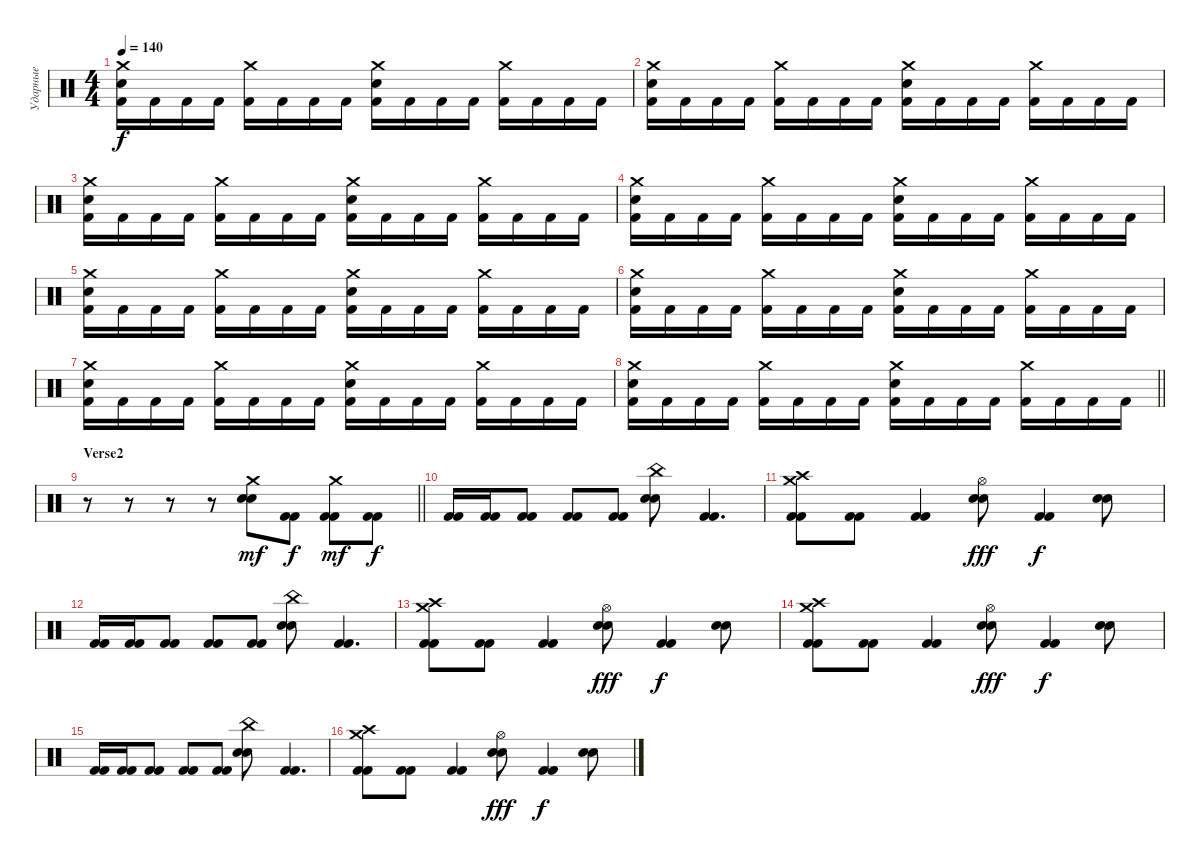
\track ("Ударные" "Ударные") {instrument percussion}
\staff {score}
\articulation defaults
\ts (4 4)
\tempo 140
\clef neutral
\ks c
("Crash medium (hit)" "Electric Snare (hit)" "Kick (hit) 2").16{dy f} "Kick (hit) 2".16 "Kick (hit) 2".16 "Kick (hit) 2".16 ("Crash medium (hit)" "Kick (hit) 2").16 "Kick (hit) 2".16 "Kick (hit) 2".16 "Kick (hit) 2".16 ("Crash medium (hit)" "Electric Snare (hit)" "Kick (hit) 2").16 "Kick (hit) 2".16 "Kick (hit) 2".16 "Kick (hit) 2".16 ("Crash medium (hit)" "Kick (hit) 2").16 "Kick (hit) 2".16 "Kick (hit) 2".16 "Kick (hit) 2".16 |
("Crash medium (hit)" "Electric Snare (hit)" "Kick (hit) 2").16 "Kick (hit) 2".16 "Kick (hit) 2".16 "Kick (hit) 2".16 ("Crash medium (hit)" "Kick (hit) 2").16 "Kick (hit) 2".16 "Kick (hit) 2".16 "Kick (hit) 2".16 ("Crash medium (hit)" "Electric Snare (hit)" "Kick (hit) 2").16 "Kick (hit) 2".16 "Kick (hit) 2".16 "Kick (hit) 2".16 ("Crash medium (hit)" "Kick (hit) 2").16 "Kick (hit) 2".16 "Kick (hit) 2".16 "Kick (hit) 2".16 |
("Crash medium (hit)" "Electric Snare (hit)" "Kick (hit) 2").16 "Kick (hit) 2".16 "Kick (hit) 2".16 "Kick (hit) 2".16 ("Crash medium (hit)" "Kick (hit) 2").16 "Kick (hit) 2".16 "Kick (hit) 2".16 "Kick (hit) 2".16 ("Crash medium (hit)" "Electric Snare (hit)" "Kick (hit) 2").16 "Kick (hit) 2".16 "Kick (hit) 2".16 "Kick (hit) 2".16 ("Crash medium (hit)" "Kick (hit) 2").16 "Kick (hit) 2".16 "Kick (hit) 2".16 "Kick (hit) 2".16 |
("Crash medium (hit)" "Electric Snare (hit)" "Kick (hit) 2").16 "Kick (hit) 2".16 "Kick (hit) 2".16 "Kick (hit) 2".16 ("Crash medium (hit)" "Kick (hit) 2").16 "Kick (hit) 2".16 "Kick (hit) 2".16 "Kick (hit) 2".16 ("Crash medium (hit)" "Electric Snare (hit)" "Kick (hit) 2").16 "Kick (hit) 2".16 "Kick (hit) 2".16 "Kick (hit) 2".16 ("Crash medium (hit)" "Kick (hit) 2").16 "Kick (hit) 2".16 "Kick (hit) 2".16 "Kick (hit) 2".16 |
("Crash medium (hit)" "Electric Snare (hit)" "Kick (hit) 2").16 "Kick (hit) 2".16 "Kick (hit) 2".16 "Kick (hit) 2".16 ("Crash medium (hit)" "Kick (hit) 2").16 "Kick (hit) 2".16 "Kick (hit) 2".16 "Kick (hit) 2".16 ("Crash medium (hit)" "Electric Snare (hit)" "Kick (hit) 2").16 "Kick (hit) 2".16 "Kick (hit) 2".16 "Kick (hit) 2".16 ("Crash medium (hit)" "Kick (hit) 2").16 "Kick (hit) 2".16 "Kick (hit) 2".16 "Kick (hit) 2".16 |
("Crash medium (hit)" "Electric Snare (hit)" "Kick (hit) 2").16 "Kick (hit) 2".16 "Kick (hit) 2".16 "Kick (hit) 2".16 ("Crash medium (hit)" "Kick (hit) 2").16 "Kick (hit) 2".16 "Kick (hit) 2".16 "Kick (hit) 2".16 ("Crash medium (hit)" "Electric Snare (hit)" "Kick (hit) 2").16 "Kick (hit) 2".16 "Kick (hit) 2".16 "Kick (hit) 2".16 ("Crash medium (hit)" "Kick (hit) 2").16 "Kick (hit) 2".16 "Kick (hit) 2".16 "Kick (hit) 2".16 |
("Crash medium (hit)" "Electric Snare (hit)" "Kick (hit) 2").16 "Kick (hit) 2".16 "Kick (hit) 2".16 "Kick (hit) 2".16 ("Crash medium (hit)" "Kick (hit) 2").16 "Kick (hit) 2".16 "Kick (hit) 2".16 "Kick (hit) 2".16 ("Crash medium (hit)" "Electric Snare (hit)" "Kick (hit) 2").16 "Kick (hit) 2".16 "Kick (hit) 2".16 "Kick (hit) 2".16 ("Crash medium (hit)" "Kick (hit) 2").16 "Kick (hit) 2".16 "Kick (hit) 2".16 "Kick (hit) 2".16 |
\barLineRight lightlight
("Crash medium (hit)" "Electric Snare (hit)" "Kick (hit) 2").16 "Kick (hit) 2".16 "Kick (hit) 2".16 "Kick (hit) 2".16 ("Crash medium (hit)" "Kick (hit) 2").16 "Kick (hit) 2".16 "Kick (hit) 2".16 "Kick (hit) 2".16 ("Crash medium (hit)" "Electric Snare (hit)" "Kick (hit) 2").16 "Kick (hit) 2".16 "Kick (hit) 2".16 "Kick (hit) 2".16 ("Crash medium (hit)" "Kick (hit) 2").16 "Kick (hit) 2".16 "Kick (hit) 2".16 "Kick (hit) 2".16 |
\section ("" "Verse2")
\barLineRight lightlight
r.8 r.8 r.8 r.8 ("Crash medium (hit)" "Electric Snare (hit)" "Electric Snare (hit)").8{dy mf} ("Kick (hit) 2" "Kick (hit) 2").8{dy f} ("Crash medium (hit)" "Kick (hit) 2" "Kick (hit) 2").8{dy mf} ("Kick (hit) 2" "Kick (hit) 2").8{dy f} |
("Kick (hit) 2" "Kick (hit) 2").16 ("Kick (hit) 2" "Kick (hit) 2").16 ("Kick (hit) 2" "Kick (hit) 2").8 ("Kick (hit) 2" "Kick (hit) 2").8 ("Kick (hit) 2" "Kick (hit) 2").8 ("China (hit)" "Electric Snare (hit)" "Electric Snare (hit)").8 ("Kick (hit) 2" "Kick (hit) 2").4{d} |
("Crash medium (hit)" "Crash high (hit)" "Kick (hit) 2" "Kick (hit) 2").8 ("Kick (hit) 2" "Kick (hit) 2").8 ("Kick (hit) 2" "Kick (hit) 2").4 ("Hi-Hat (open)" "Electric Snare (hit)" "Electric Snare (hit)").8{dy fff} ("Kick (hit) 2" "Kick (hit) 2").4{dy f} ("Electric Snare (hit)" "Electric Snare (hit)").8 |
("Kick (hit) 2" "Kick (hit) 2").16 ("Kick (hit) 2" "Kick (hit) 2").16 ("Kick (hit) 2" "Kick (hit) 2").8 ("Kick (hit) 2" "Kick (hit) 2").8 ("Kick (hit) 2" "Kick (hit) 2").8 ("China (hit)" "Electric Snare (hit)" "Electric Snare (hit)").8 ("Kick (hit) 2" "Kick (hit) 2").4{d} |
("Crash medium (hit)" "Crash high (hit)" "Kick (hit) 2" "Kick (hit) 2").8 ("Kick (hit) 2" "Kick (hit) 2").8 ("Kick (hit) 2" "Kick (hit) 2").4 ("Hi-Hat (open)" "Electric Snare (hit)" "Electric Snare (hit)").8{dy fff} ("Kick (hit) 2" "Kick (hit) 2").4{dy f} ("Electric Snare (hit)" "Electric Snare (hit)").8 |
("Crash medium (hit)" "Crash high (hit)" "Kick (hit) 2" "Kick (hit) 2").8 ("Kick (hit) 2" "Kick (hit) 2").8 ("Kick (hit) 2" "Kick (hit) 2").4 ("Hi-Hat (open)" "Electric Snare (hit)" "Electric Snare (hit)").8{dy fff} ("Kick (hit) 2" "Kick (hit) 2").4{dy f} ("Electric Snare (hit)" "Electric Snare (hit)").8 |
("Kick (hit) 2" "Kick (hit) 2").16 ("Kick (hit) 2" "Kick (hit) 2").16 ("Kick (hit) 2" "Kick (hit) 2").8 ("Kick (hit) 2" "Kick (hit) 2").8 ("Kick (hit) 2" "Kick (hit) 2").8 ("China (hit)" "Electric Snare (hit)" "Electric Snare (hit)").8 ("Kick (hit) 2" "Kick (hit) 2").4{d} |
("Crash medium (hit)" "Crash high (hit)" "Kick (hit) 2" "Kick (hit) 2").8 ("Kick (hit) 2" "Kick (hit) 2").8 ("Kick (hit) 2" "Kick (hit) 2").4 ("Hi-Hat (open)" "Electric Snare (hit)" "Electric Snare (hit)").8{dy fff} ("Kick (hit) 2" "Kick (hit) 2").4{dy f} ("Electric Snare (hit)" "Electric Snare (hit)").8
